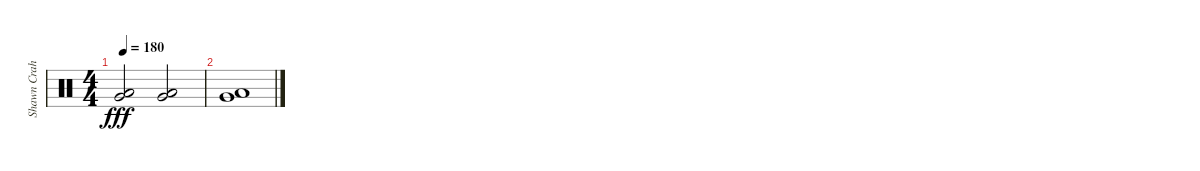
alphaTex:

\track ("Shawn Crahan" "Shawn Crah") {instrument percussion}
\staff {score}
\articulation defaults
\ts (4 4)
\tempo 180
\clef neutral
\ks c
("Very Low Tom (hit)" "Low Floor Tom (hit)").2{dy fff} ("Very Low Tom (hit)" "Low Floor Tom (hit)").2 |
("Very Low Tom (hit)" "Low Floor Tom (hit)").1
